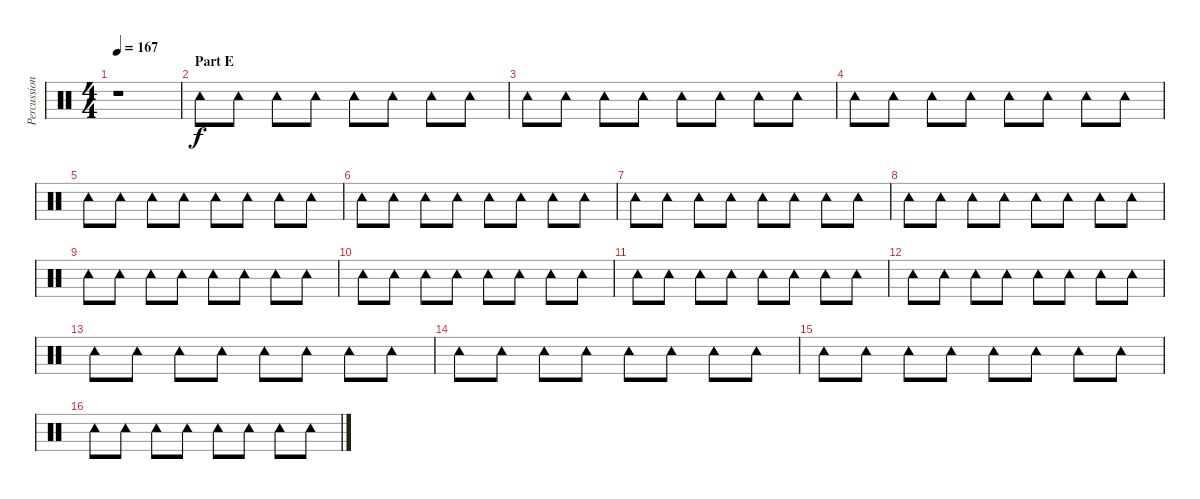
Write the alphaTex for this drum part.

\track ("Percussion" "Percussion") {instrument percussion}
\staff {score}
\articulation defaults
\ts (4 4)
\tempo 167
\clef neutral
\ks c
r.1{dy f} |
\section ("" "Part E")
"Tambourine (hit)".8 "Tambourine (hit)".8 "Tambourine (hit)".8 "Tambourine (hit)".8 "Tambourine (hit)".8 "Tambourine (hit)".8 "Tambourine (hit)".8 "Tambourine (hit)".8 |
"Tambourine (hit)".8 "Tambourine (hit)".8 "Tambourine (hit)".8 "Tambourine (hit)".8 "Tambourine (hit)".8 "Tambourine (hit)".8 "Tambourine (hit)".8 "Tambourine (hit)".8 |
"Tambourine (hit)".8 "Tambourine (hit)".8 "Tambourine (hit)".8 "Tambourine (hit)".8 "Tambourine (hit)".8 "Tambourine (hit)".8 "Tambourine (hit)".8 "Tambourine (hit)".8 |
"Tambourine (hit)".8 "Tambourine (hit)".8 "Tambourine (hit)".8 "Tambourine (hit)".8 "Tambourine (hit)".8 "Tambourine (hit)".8 "Tambourine (hit)".8 "Tambourine (hit)".8 |
"Tambourine (hit)".8 "Tambourine (hit)".8 "Tambourine (hit)".8 "Tambourine (hit)".8 "Tambourine (hit)".8 "Tambourine (hit)".8 "Tambourine (hit)".8 "Tambourine (hit)".8 |
"Tambourine (hit)".8 "Tambourine (hit)".8 "Tambourine (hit)".8 "Tambourine (hit)".8 "Tambourine (hit)".8 "Tambourine (hit)".8 "Tambourine (hit)".8 "Tambourine (hit)".8 |
"Tambourine (hit)".8 "Tambourine (hit)".8 "Tambourine (hit)".8 "Tambourine (hit)".8 "Tambourine (hit)".8 "Tambourine (hit)".8 "Tambourine (hit)".8 "Tambourine (hit)".8 |
"Tambourine (hit)".8 "Tambourine (hit)".8 "Tambourine (hit)".8 "Tambourine (hit)".8 "Tambourine (hit)".8 "Tambourine (hit)".8 "Tambourine (hit)".8 "Tambourine (hit)".8 |
"Tambourine (hit)".8 "Tambourine (hit)".8 "Tambourine (hit)".8 "Tambourine (hit)".8 "Tambourine (hit)".8 "Tambourine (hit)".8 "Tambourine (hit)".8 "Tambourine (hit)".8 |
"Tambourine (hit)".8 "Tambourine (hit)".8 "Tambourine (hit)".8 "Tambourine (hit)".8 "Tambourine (hit)".8 "Tambourine (hit)".8 "Tambourine (hit)".8 "Tambourine (hit)".8 |
"Tambourine (hit)".8 "Tambourine (hit)".8 "Tambourine (hit)".8 "Tambourine (hit)".8 "Tambourine (hit)".8 "Tambourine (hit)".8 "Tambourine (hit)".8 "Tambourine (hit)".8 |
"Tambourine (hit)".8 "Tambourine (hit)".8 "Tambourine (hit)".8 "Tambourine (hit)".8 "Tambourine (hit)".8 "Tambourine (hit)".8 "Tambourine (hit)".8 "Tambourine (hit)".8 |
"Tambourine (hit)".8 "Tambourine (hit)".8 "Tambourine (hit)".8 "Tambourine (hit)".8 "Tambourine (hit)".8 "Tambourine (hit)".8 "Tambourine (hit)".8 "Tambourine (hit)".8 |
"Tambourine (hit)".8 "Tambourine (hit)".8 "Tambourine (hit)".8 "Tambourine (hit)".8 "Tambourine (hit)".8 "Tambourine (hit)".8 "Tambourine (hit)".8 "Tambourine (hit)".8 |
"Tambourine (hit)".8 "Tambourine (hit)".8 "Tambourine (hit)".8 "Tambourine (hit)".8 "Tambourine (hit)".8 "Tambourine (hit)".8 "Tambourine (hit)".8 "Tambourine (hit)".8
